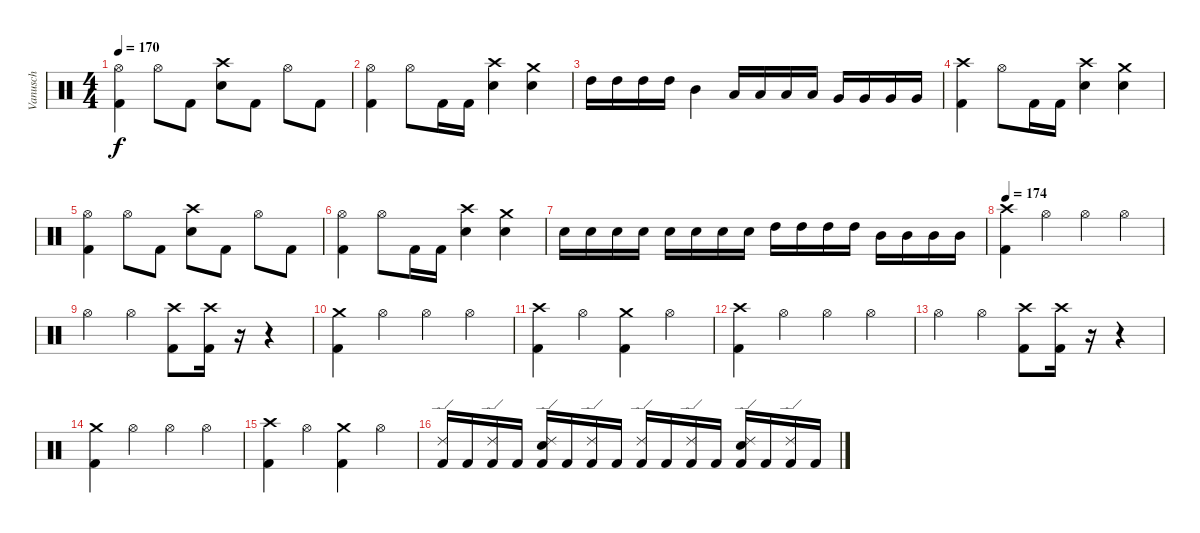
\track ("Vanusch" "Vanusch") {instrument percussion}
\staff {score}
\articulation defaults
\ts (4 4)
\tempo 170
\clef neutral
\ks c
("Hi-Hat (open)" "Kick (hit) 2").4{dy f} "Hi-Hat (open)".8 "Kick (hit) 2".8 ("Crash high (hit)" "Snare (hit) 2").8 "Kick (hit) 2".8 "Hi-Hat (open)".8 "Kick (hit) 2".8 |
("Hi-Hat (open)" "Kick (hit) 2").4 "Hi-Hat (open)".8 "Kick (hit) 2".16 "Kick (hit) 2".16 ("Crash high (hit)" "Snare (hit) 2").4 ("Crash medium (hit)" "Snare (hit) 2").4 |
"High Tom (hit)".16 "High Tom (hit)".16 "High Tom (hit)".16 "High Tom (hit)".16 "Mid Tom (hit)".4 "Low Tom (hit)".16 "Low Tom (hit)".16 "Low Tom (hit)".16 "Low Tom (hit)".16 "Very Low Tom (hit)".16 "Very Low Tom (hit)".16 "Very Low Tom (hit)".16 "Very Low Tom (hit)".16 |
("Crash high (hit)" "Kick (hit) 2").4 "Hi-Hat (open)".8 "Kick (hit) 2".16 "Kick (hit) 2".16 ("Crash high (hit)" "Snare (hit) 2").4 ("Crash medium (hit)" "Snare (hit) 2").4 |
("Hi-Hat (open)" "Kick (hit) 2").4 "Hi-Hat (open)".8 "Kick (hit) 2".8 ("Crash high (hit)" "Snare (hit) 2").8 "Kick (hit) 2".8 "Hi-Hat (open)".8 "Kick (hit) 2".8 |
("Hi-Hat (open)" "Kick (hit) 2").4 "Hi-Hat (open)".8 "Kick (hit) 2".16 "Kick (hit) 2".16 ("Crash high (hit)" "Snare (hit) 2").4 ("Crash medium (hit)" "Snare (hit) 2").4 |
"Snare (hit) 2".16 "Snare (hit) 2".16 "Snare (hit) 2".16 "Snare (hit) 2".16 "Snare (hit) 2".16 "Snare (hit) 2".16 "Snare (hit) 2".16 "Snare (hit) 2".16 "High Tom (hit)".16 "High Tom (hit)".16 "High Tom (hit)".16 "High Tom (hit)".16 "Mid Tom (hit)".16 "Mid Tom (hit)".16 "Mid Tom (hit)".16 "Mid Tom (hit)".16 |
\tempo 174
("Crash high (hit)" "Kick (hit) 2").4 "Hi-Hat (open)".4 "Hi-Hat (open)".4 "Hi-Hat (open)".4 |
"Hi-Hat (open)".4 "Hi-Hat (open)".4 ("Crash high (hit)" "Kick (hit) 2").8 ("Crash high (hit)" "Kick (hit) 2").16 r.16 r.4 |
("Crash medium (hit)" "Kick (hit) 2").4 "Hi-Hat (open)".4 "Hi-Hat (open)".4 "Hi-Hat (open)".4 |
("Crash high (hit)" "Kick (hit) 2").4 "Hi-Hat (open)".4 ("Crash medium (hit)" "Kick (hit) 2").4 "Hi-Hat (open)".4 |
("Crash high (hit)" "Kick (hit) 2").4 "Hi-Hat (open)".4 "Hi-Hat (open)".4 "Hi-Hat (open)".4 |
"Hi-Hat (open)".4 "Hi-Hat (open)".4 ("Crash high (hit)" "Kick (hit) 2").8 ("Crash high (hit)" "Kick (hit) 2").16 r.16 r.4 |
("Crash medium (hit)" "Kick (hit) 2").4 "Hi-Hat (open)".4 "Hi-Hat (open)".4 "Hi-Hat (open)".4 |
("Crash high (hit)" "Kick (hit) 2").4 "Hi-Hat (open)".4 ("Crash medium (hit)" "Kick (hit) 2").4 "Hi-Hat (open)".4 |
("Ride (edge) 2" "Kick (hit) 2").16 "Kick (hit) 2".16 ("Ride (edge) 2" "Kick (hit) 2").16 "Kick (hit) 2".16 ("Ride (edge) 2" "Snare (hit) 2" "Kick (hit) 2").16 "Kick (hit) 2".16 ("Ride (edge) 2" "Kick (hit) 2").16 "Kick (hit) 2".16 ("Ride (edge) 2" "Kick (hit) 2").16 "Kick (hit) 2".16 ("Ride (edge) 2" "Kick (hit) 2").16 "Kick (hit) 2".16 ("Ride (edge) 2" "Snare (hit) 2" "Kick (hit) 2").16 "Kick (hit) 2".16 ("Ride (edge) 2" "Kick (hit) 2").16 "Kick (hit) 2".16
